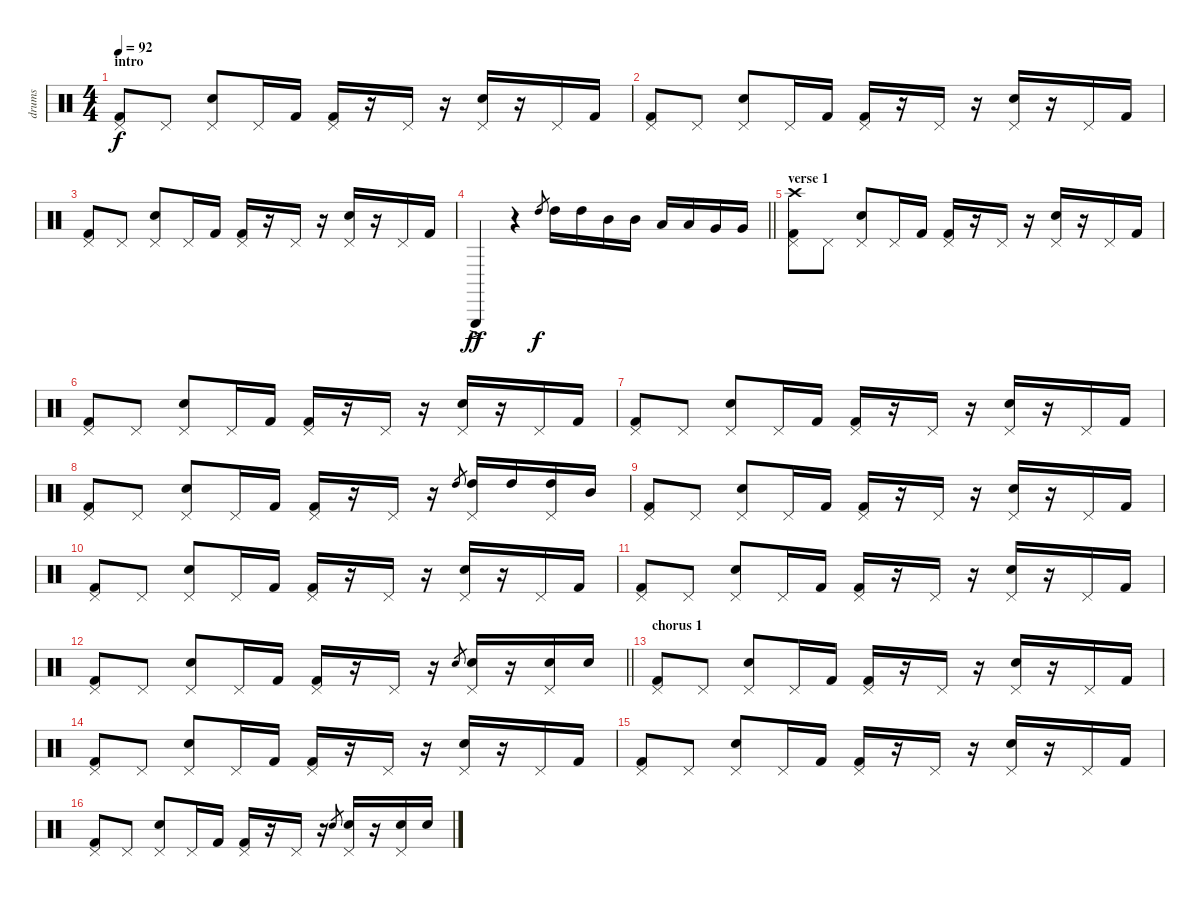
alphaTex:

\track ("drums" "drums") {instrument percussion}
\staff {score}
\articulation defaults
\ts (4 4)
\section ("" "intro")
\tempo 92
\clef neutral
\ks c
("Kick (hit) 2" "Pedal Hi-Hat (hit)").8{dy f} "Pedal Hi-Hat (hit)".8 ("Electric Snare (hit)" "Pedal Hi-Hat (hit)").8 "Pedal Hi-Hat (hit)".16 "Kick (hit) 2".16 ("Kick (hit) 2" "Pedal Hi-Hat (hit)").16 r.16 "Pedal Hi-Hat (hit)".16 r.16 ("Electric Snare (hit)" "Pedal Hi-Hat (hit)").16 r.16 "Pedal Hi-Hat (hit)".16 "Kick (hit) 2".16 |
("Kick (hit) 2" "Pedal Hi-Hat (hit)").8 "Pedal Hi-Hat (hit)".8 ("Electric Snare (hit)" "Pedal Hi-Hat (hit)").8 "Pedal Hi-Hat (hit)".16 "Kick (hit) 2".16 ("Kick (hit) 2" "Pedal Hi-Hat (hit)").16 r.16 "Pedal Hi-Hat (hit)".16 r.16 ("Electric Snare (hit)" "Pedal Hi-Hat (hit)").16 r.16 "Pedal Hi-Hat (hit)".16 "Kick (hit) 2".16 |
("Kick (hit) 2" "Pedal Hi-Hat (hit)").8 "Pedal Hi-Hat (hit)".8 ("Electric Snare (hit)" "Pedal Hi-Hat (hit)").8 "Pedal Hi-Hat (hit)".16 "Kick (hit) 2".16 ("Kick (hit) 2" "Pedal Hi-Hat (hit)").16 r.16 "Pedal Hi-Hat (hit)".16 r.16 ("Electric Snare (hit)" "Pedal Hi-Hat (hit)").16 r.16 "Pedal Hi-Hat (hit)".16 "Kick (hit) 2".16 |
\barLineRight lightlight "Triangle (hit)"{ac}.4{dy ff}
r.4 "High Tom (hit)".8{gr dy f} "High Tom (hit)".16 "High Tom (hit)".16 "Mid Tom (hit)".16 "Mid Tom (hit)".16 "Low Tom (hit)".16 "Low Tom (hit)".16 "Very Low Tom (hit)".16 "Very Low Tom (hit)".16 |
\section ("" "verse 1")
("Kick (hit) 2" "Pedal Hi-Hat (hit)" "Crash high (hit)").8 "Pedal Hi-Hat (hit)".8 ("Electric Snare (hit)" "Pedal Hi-Hat (hit)").8 "Pedal Hi-Hat (hit)".16 "Kick (hit) 2".16 ("Kick (hit) 2" "Pedal Hi-Hat (hit)").16 r.16 "Pedal Hi-Hat (hit)".16 r.16 ("Electric Snare (hit)" "Pedal Hi-Hat (hit)").16 r.16 "Pedal Hi-Hat (hit)".16 "Kick (hit) 2".16 |
("Kick (hit) 2" "Pedal Hi-Hat (hit)").8 "Pedal Hi-Hat (hit)".8 ("Electric Snare (hit)" "Pedal Hi-Hat (hit)").8 "Pedal Hi-Hat (hit)".16 "Kick (hit) 2".16 ("Kick (hit) 2" "Pedal Hi-Hat (hit)").16 r.16 "Pedal Hi-Hat (hit)".16 r.16 ("Electric Snare (hit)" "Pedal Hi-Hat (hit)").16 r.16 "Pedal Hi-Hat (hit)".16 "Kick (hit) 2".16 |
("Kick (hit) 2" "Pedal Hi-Hat (hit)").8 "Pedal Hi-Hat (hit)".8 ("Electric Snare (hit)" "Pedal Hi-Hat (hit)").8 "Pedal Hi-Hat (hit)".16 "Kick (hit) 2".16 ("Kick (hit) 2" "Pedal Hi-Hat (hit)").16 r.16 "Pedal Hi-Hat (hit)".16 r.16 ("Electric Snare (hit)" "Pedal Hi-Hat (hit)").16 r.16 "Pedal Hi-Hat (hit)".16 "Kick (hit) 2".16 |
("Kick (hit) 2" "Pedal Hi-Hat (hit)").8 "Pedal Hi-Hat (hit)".8 ("Electric Snare (hit)" "Pedal Hi-Hat (hit)").8 "Pedal Hi-Hat (hit)".16 "Kick (hit) 2".16 ("Kick (hit) 2" "Pedal Hi-Hat (hit)").16 r.16 "Pedal Hi-Hat (hit)".16 r.16 "High Tom (hit)".8{gr} ("High Tom (hit)" "Pedal Hi-Hat (hit)").16 "High Tom (hit)".16 ("High Tom (hit)" "Pedal Hi-Hat (hit)").16 "Mid Tom (hit)".16 |
("Kick (hit) 2" "Pedal Hi-Hat (hit)").8 "Pedal Hi-Hat (hit)".8 ("Electric Snare (hit)" "Pedal Hi-Hat (hit)").8 "Pedal Hi-Hat (hit)".16 "Kick (hit) 2".16 ("Kick (hit) 2" "Pedal Hi-Hat (hit)").16 r.16 "Pedal Hi-Hat (hit)".16 r.16 ("Electric Snare (hit)" "Pedal Hi-Hat (hit)").16 r.16 "Pedal Hi-Hat (hit)".16 "Kick (hit) 2".16 |
("Kick (hit) 2" "Pedal Hi-Hat (hit)").8 "Pedal Hi-Hat (hit)".8 ("Electric Snare (hit)" "Pedal Hi-Hat (hit)").8 "Pedal Hi-Hat (hit)".16 "Kick (hit) 2".16 ("Kick (hit) 2" "Pedal Hi-Hat (hit)").16 r.16 "Pedal Hi-Hat (hit)".16 r.16 ("Electric Snare (hit)" "Pedal Hi-Hat (hit)").16 r.16 "Pedal Hi-Hat (hit)".16 "Kick (hit) 2".16 |
("Kick (hit) 2" "Pedal Hi-Hat (hit)").8 "Pedal Hi-Hat (hit)".8 ("Electric Snare (hit)" "Pedal Hi-Hat (hit)").8 "Pedal Hi-Hat (hit)".16 "Kick (hit) 2".16 ("Kick (hit) 2" "Pedal Hi-Hat (hit)").16 r.16 "Pedal Hi-Hat (hit)".16 r.16 ("Electric Snare (hit)" "Pedal Hi-Hat (hit)").16 r.16 "Pedal Hi-Hat (hit)".16 "Kick (hit) 2".16 |
\barLineRight lightlight
("Kick (hit) 2" "Pedal Hi-Hat (hit)").8 "Pedal Hi-Hat (hit)".8 ("Electric Snare (hit)" "Pedal Hi-Hat (hit)").8 "Pedal Hi-Hat (hit)".16 "Kick (hit) 2".16 ("Kick (hit) 2" "Pedal Hi-Hat (hit)").16 r.16 "Pedal Hi-Hat (hit)".16 r.16 "Electric Snare (hit)".8{gr} ("Electric Snare (hit)" "Pedal Hi-Hat (hit)").16 r.16 ("Electric Snare (hit)" "Pedal Hi-Hat (hit)").16 "Electric Snare (hit)".16 |
\section ("" "chorus 1")
("Kick (hit) 2" "Pedal Hi-Hat (hit)").8 "Pedal Hi-Hat (hit)".8 ("Electric Snare (hit)" "Pedal Hi-Hat (hit)").8 "Pedal Hi-Hat (hit)".16 "Kick (hit) 2".16 ("Kick (hit) 2" "Pedal Hi-Hat (hit)").16 r.16 "Pedal Hi-Hat (hit)".16 r.16 ("Electric Snare (hit)" "Pedal Hi-Hat (hit)").16 r.16 "Pedal Hi-Hat (hit)".16 "Kick (hit) 2".16 |
("Kick (hit) 2" "Pedal Hi-Hat (hit)").8 "Pedal Hi-Hat (hit)".8 ("Electric Snare (hit)" "Pedal Hi-Hat (hit)").8 "Pedal Hi-Hat (hit)".16 "Kick (hit) 2".16 ("Kick (hit) 2" "Pedal Hi-Hat (hit)").16 r.16 "Pedal Hi-Hat (hit)".16 r.16 ("Electric Snare (hit)" "Pedal Hi-Hat (hit)").16 r.16 "Pedal Hi-Hat (hit)".16 "Kick (hit) 2".16 |
("Kick (hit) 2" "Pedal Hi-Hat (hit)").8 "Pedal Hi-Hat (hit)".8 ("Electric Snare (hit)" "Pedal Hi-Hat (hit)").8 "Pedal Hi-Hat (hit)".16 "Kick (hit) 2".16 ("Kick (hit) 2" "Pedal Hi-Hat (hit)").16 r.16 "Pedal Hi-Hat (hit)".16 r.16 ("Electric Snare (hit)" "Pedal Hi-Hat (hit)").16 r.16 "Pedal Hi-Hat (hit)".16 "Kick (hit) 2".16 |
("Kick (hit) 2" "Pedal Hi-Hat (hit)").8 "Pedal Hi-Hat (hit)".8 ("Electric Snare (hit)" "Pedal Hi-Hat (hit)").8 "Pedal Hi-Hat (hit)".16 "Kick (hit) 2".16 ("Kick (hit) 2" "Pedal Hi-Hat (hit)").16 r.16 "Pedal Hi-Hat (hit)".16 r.16 "Electric Snare (hit)".8{gr} ("Electric Snare (hit)" "Pedal Hi-Hat (hit)").16 r.16 ("Electric Snare (hit)" "Pedal Hi-Hat (hit)").16 "Electric Snare (hit)".16
